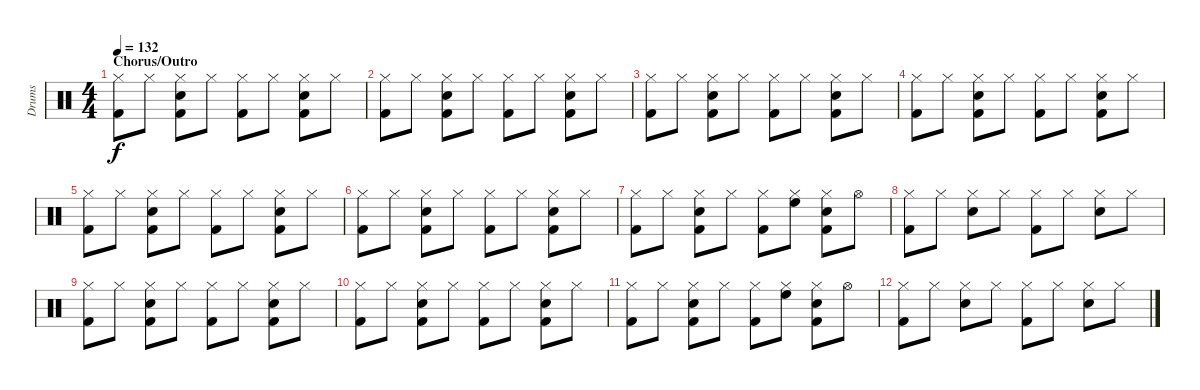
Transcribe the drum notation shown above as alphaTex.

\track ("Drums" "Drums") {instrument percussion}
\staff {score}
\articulation defaults
\ts (4 4)
\section ("" "Chorus/Outro")
\tempo 132
\clef neutral
\ks c
("Hi-Hat (closed)" "Kick (hit) 2").8{dy f} "Hi-Hat (closed)".8 ("Hi-Hat (closed)" "Snare (hit) 2" "Kick (hit) 2").8 "Hi-Hat (closed)".8 ("Hi-Hat (closed)" "Kick (hit) 2").8 "Hi-Hat (closed)".8 ("Hi-Hat (closed)" "Snare (hit) 2" "Kick (hit) 2").8 "Hi-Hat (closed)".8 |
("Hi-Hat (closed)" "Kick (hit) 2").8 "Hi-Hat (closed)".8 ("Hi-Hat (closed)" "Snare (hit) 2" "Kick (hit) 2").8 "Hi-Hat (closed)".8 ("Hi-Hat (closed)" "Kick (hit) 2").8 "Hi-Hat (closed)".8 ("Hi-Hat (closed)" "Snare (hit) 2" "Kick (hit) 2").8 "Hi-Hat (closed)".8 |
("Hi-Hat (closed)" "Kick (hit) 2").8 "Hi-Hat (closed)".8 ("Hi-Hat (closed)" "Snare (hit) 2" "Kick (hit) 2").8 "Hi-Hat (closed)".8 ("Hi-Hat (closed)" "Kick (hit) 2").8 "Hi-Hat (closed)".8 ("Hi-Hat (closed)" "Snare (hit) 2" "Kick (hit) 2").8 "Hi-Hat (closed)".8 |
("Hi-Hat (closed)" "Kick (hit) 2").8 "Hi-Hat (closed)".8 ("Hi-Hat (closed)" "Snare (hit) 2" "Kick (hit) 2").8 "Hi-Hat (closed)".8 ("Hi-Hat (closed)" "Kick (hit) 2").8 "Hi-Hat (closed)".8 ("Hi-Hat (closed)" "Snare (hit) 2" "Kick (hit) 2").8 "Hi-Hat (closed)".8 |
("Hi-Hat (closed)" "Kick (hit) 2").8 "Hi-Hat (closed)".8 ("Hi-Hat (closed)" "Snare (hit) 2" "Kick (hit) 2").8 "Hi-Hat (closed)".8 ("Hi-Hat (closed)" "Kick (hit) 2").8 "Hi-Hat (closed)".8 ("Hi-Hat (closed)" "Snare (hit) 2" "Kick (hit) 2").8 "Hi-Hat (closed)".8 |
("Hi-Hat (closed)" "Kick (hit) 2").8 "Hi-Hat (closed)".8 ("Hi-Hat (closed)" "Snare (hit) 2" "Kick (hit) 2").8 "Hi-Hat (closed)".8 ("Hi-Hat (closed)" "Kick (hit) 2").8 "Hi-Hat (closed)".8 ("Hi-Hat (closed)" "Snare (hit) 2" "Kick (hit) 2").8 "Hi-Hat (closed)".8 |
("Hi-Hat (closed)" "Kick (hit) 2").8 "Hi-Hat (closed)".8 ("Hi-Hat (closed)" "Snare (hit) 2" "Kick (hit) 2").8 "Hi-Hat (closed)".8 ("Hi-Hat (closed)" "Kick (hit) 2").8 ("Hi-Hat (closed)" "High Floor Tom (hit)").8 ("Hi-Hat (closed)" "Snare (hit) 2" "Kick (hit) 2").8 "Hi-Hat (open)".8 |
("Hi-Hat (closed)" "Kick (hit) 2").8 "Hi-Hat (closed)".8 ("Hi-Hat (closed)" "Snare (hit) 2").8 "Hi-Hat (closed)".8 ("Hi-Hat (closed)" "Kick (hit) 2").8 "Hi-Hat (closed)".8 ("Hi-Hat (closed)" "Snare (hit) 2").8 "Hi-Hat (closed)".8 |
("Hi-Hat (closed)" "Kick (hit) 2").8{volume 0} "Hi-Hat (closed)".8 ("Hi-Hat (closed)" "Snare (hit) 2" "Kick (hit) 2").8 "Hi-Hat (closed)".8 ("Hi-Hat (closed)" "Kick (hit) 2").8 "Hi-Hat (closed)".8 ("Hi-Hat (closed)" "Snare (hit) 2" "Kick (hit) 2").8 "Hi-Hat (closed)".8 |
("Hi-Hat (closed)" "Kick (hit) 2").8 "Hi-Hat (closed)".8 ("Hi-Hat (closed)" "Snare (hit) 2" "Kick (hit) 2").8 "Hi-Hat (closed)".8 ("Hi-Hat (closed)" "Kick (hit) 2").8 "Hi-Hat (closed)".8 ("Hi-Hat (closed)" "Snare (hit) 2" "Kick (hit) 2").8 "Hi-Hat (closed)".8 |
("Hi-Hat (closed)" "Kick (hit) 2").8 "Hi-Hat (closed)".8 ("Hi-Hat (closed)" "Snare (hit) 2" "Kick (hit) 2").8 "Hi-Hat (closed)".8 ("Hi-Hat (closed)" "Kick (hit) 2").8 ("Hi-Hat (closed)" "High Floor Tom (hit)").8 ("Hi-Hat (closed)" "Snare (hit) 2" "Kick (hit) 2").8 "Hi-Hat (open)".8 |
("Hi-Hat (closed)" "Kick (hit) 2").8 "Hi-Hat (closed)".8 ("Hi-Hat (closed)" "Snare (hit) 2").8 "Hi-Hat (closed)".8 ("Hi-Hat (closed)" "Kick (hit) 2").8 "Hi-Hat (closed)".8 ("Hi-Hat (closed)" "Snare (hit) 2").8 "Hi-Hat (closed)".8
